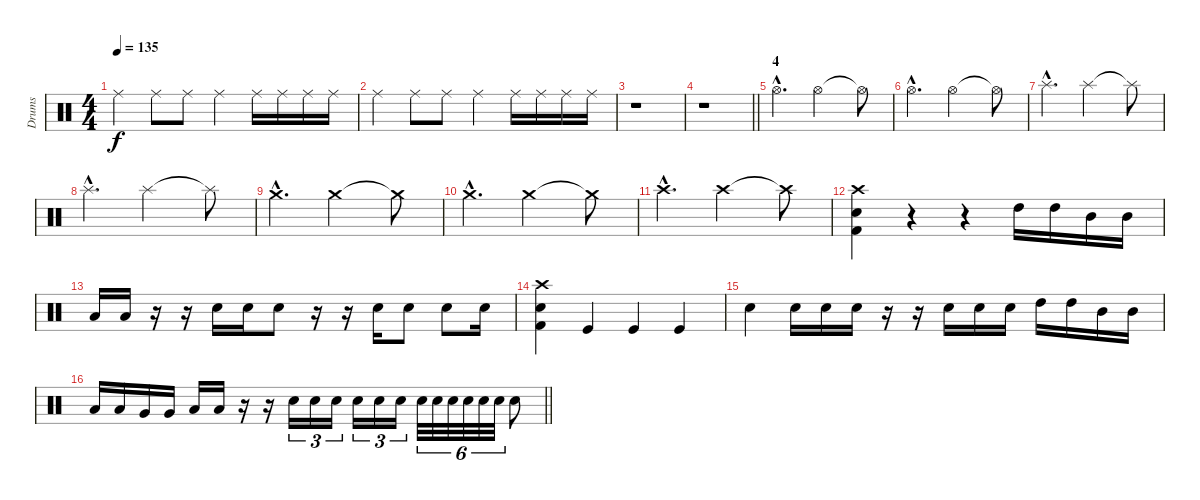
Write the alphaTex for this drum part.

\track ("Drums" "Drums") {instrument percussion}
\staff {score}
\articulation defaults
\ts (4 4)
\tempo 135
\clef neutral
\ks c "Ride (middle)".4{dy f} "Ride (middle)".8 "Ride (middle)".8 "Ride (middle)".4 "Ride (middle)".16 "Ride (middle)".16 "Ride (middle)".16 "Ride (middle)".16
|
"Ride (middle)".4 "Ride (middle)".8 "Ride (middle)".8 "Ride (middle)".4 "Ride (middle)".16 "Ride (middle)".16 "Ride (middle)".16 "Ride (middle)".16 |
r.1 |
\barLineRight lightlight
r.1 |
\section ("" "4")
"Hi-Hat (open)"{hac}.4{d} "Hi-Hat (open)".2 "Hi-Hat (open)"{t}.8 |
"Hi-Hat (open)"{hac}.4{d} "Hi-Hat (open)".2 "Hi-Hat (open)"{t}.8 |
"Splash (hit)"{hac}.4{d} "Splash (hit)".2 "Splash (hit)"{t}.8 |
"Splash (hit)"{hac}.4{d} "Splash (hit)".2 "Splash (hit)"{t}.8 |
"Crash medium (hit)"{hac}.4{d} "Crash medium (hit)".2 "Crash medium (hit)"{t}.8 |
"Crash medium (hit)"{hac}.4{d} "Crash medium (hit)".2 "Crash medium (hit)"{t}.8 |
"Crash high (hit)"{hac}.4{d} "Crash high (hit)".2 "Crash high (hit)"{t}.8 |
("Kick (hit) 2" "Electric Snare (hit)" "Crash high (hit)").4 r.4 r.4 "High Tom (hit)".16 "High Tom (hit)".16 "Mid Tom (hit)".16 "Mid Tom (hit)".16 |
"Low Tom (hit)".16 "Low Tom (hit)".16 r.16 r.16 "Electric Snare (hit)".16 "Electric Snare (hit)".16 "Electric Snare (hit)".8 r.16 r.16 "Electric Snare (hit)".16 "Electric Snare (hit)".8 "Electric Snare (hit)".8 "Electric Snare (hit)".16 |
("Electric Snare (hit)" "Crash high (hit)" "Kick (hit) 2").4 "Kick (hit)".4 "Kick (hit)".4 "Kick (hit)".4 |
"Electric Snare (hit)".4 "Electric Snare (hit)".16 "Electric Snare (hit)".16 "Electric Snare (hit)".16 r.16 r.16 "Electric Snare (hit)".16 "Electric Snare (hit)".16 "Electric Snare (hit)".16 "High Tom (hit)".16 "High Tom (hit)".16 "Mid Tom (hit)".16 "Mid Tom (hit)".16 |
\barLineRight lightlight "Low Tom (hit)".16 "Low Tom (hit)".16 "Very Low Tom (hit)".16 "Very Low Tom (hit)".16 "Low Floor Tom (hit)".16 "Low Floor Tom (hit)".16
r.16 r.16 "Electric Snare (hit)".16{tu (3 2)} "Electric Snare (hit)".16{tu (3 2)} "Electric Snare (hit)".16{tu (3 2)} "Electric Snare (hit)".16{tu (3 2)} "Electric Snare (hit)".16{tu (3 2)} "Electric Snare (hit)".16{tu (3 2)} "Electric Snare (hit)".32{tu (6 4)} "Electric Snare (hit)".32{tu (6 4)} "Electric Snare (hit)".32{tu (6 4)} "Electric Snare (hit)".32{tu (6 4)} "Electric Snare (hit)".32{tu (6 4)} "Electric Snare (hit)".32{tu (6 4)} "Electric Snare (hit)".8
